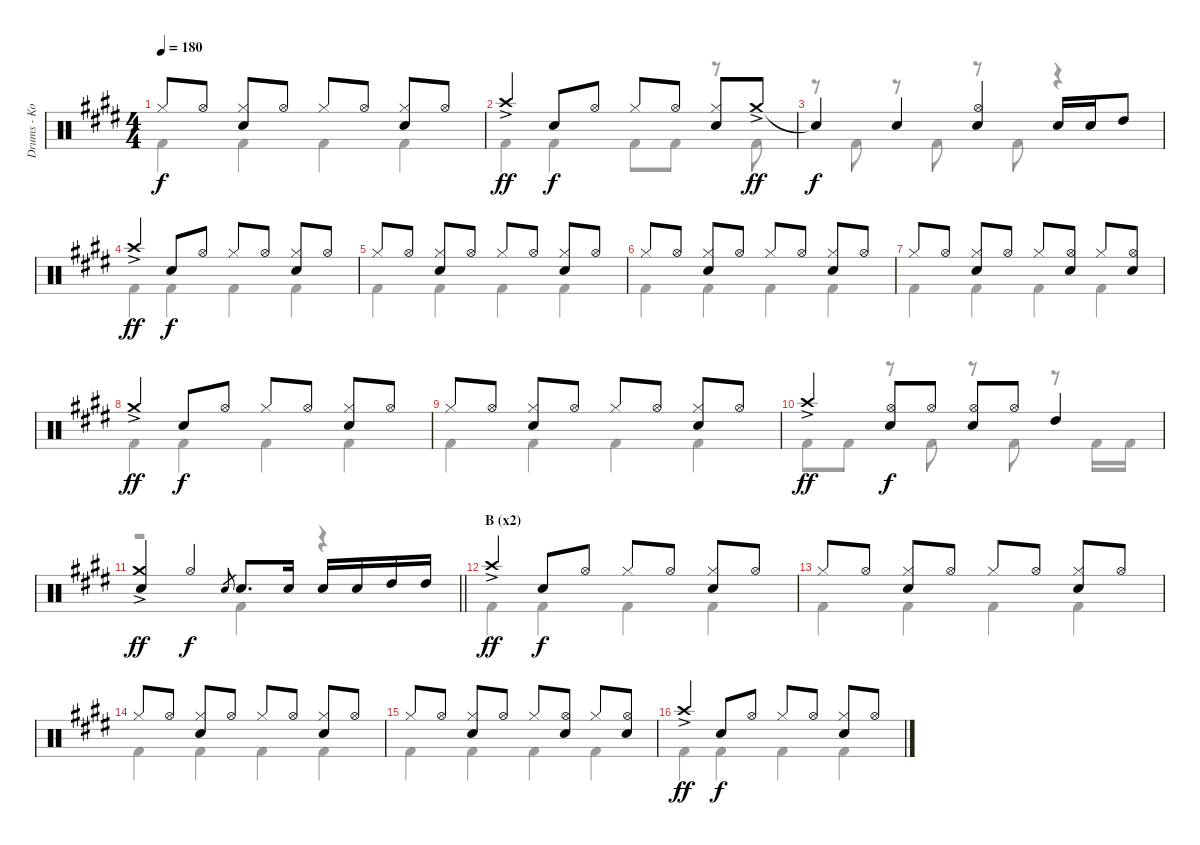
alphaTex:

\track ("Drums - Ko-Ki" "Drums - Ko") {instrument percussion}
\staff {score}
\articulation defaults
\voice
\ts (4 4)
\tempo 180
\clef neutral
\ks e "Hi-Hat (closed)".8{dy f} "Hi-Hat (open)".8
("Hi-Hat (closed)" "Snare (hit) 2").8 "Hi-Hat (open)".8 "Hi-Hat (closed)".8 "Hi-Hat (open)".8 ("Hi-Hat (closed)" "Snare (hit) 2").8 "Hi-Hat (open)".8 |
"Crash high (hit)"{ac}.4{dy ff} "Snare (hit) 2".8{dy f} "Hi-Hat (open)".8 "Hi-Hat (closed)".8 "Hi-Hat (open)".8 ("Hi-Hat (closed)" "Snare (hit) 2").8 "Crash medium (hit)"{ac}.8{dy ff} |
"Snare (hit)"{t}.4{dy f} "Snare (hit) 2".4 ("Hi-Hat (open)" "Snare (hit) 2").4 "Snare (hit) 2".16 "Snare (hit) 2".16 "High Tom (hit)".8 |
"Crash high (hit)"{ac}.4{dy ff} "Snare (hit) 2".8{dy f} "Hi-Hat (open)".8 "Hi-Hat (closed)".8 "Hi-Hat (open)".8 ("Hi-Hat (closed)" "Snare (hit) 2").8 "Hi-Hat (open)".8 |
"Hi-Hat (closed)".8 "Hi-Hat (open)".8 ("Hi-Hat (closed)" "Snare (hit) 2").8 "Hi-Hat (open)".8 "Hi-Hat (closed)".8 "Hi-Hat (open)".8 ("Hi-Hat (closed)" "Snare (hit) 2").8 "Hi-Hat (open)".8 |
"Hi-Hat (closed)".8 "Hi-Hat (open)".8 ("Hi-Hat (closed)" "Snare (hit) 2").8 "Hi-Hat (open)".8 "Hi-Hat (closed)".8 "Hi-Hat (open)".8 ("Hi-Hat (closed)" "Snare (hit) 2").8 "Hi-Hat (open)".8 |
"Hi-Hat (closed)".8 "Hi-Hat (open)".8 ("Hi-Hat (closed)" "Snare (hit) 2").8 "Hi-Hat (open)".8 "Hi-Hat (closed)".8 ("Hi-Hat (open)" "Snare (hit) 2").8 "Hi-Hat (closed)".8 ("Hi-Hat (open)" "Snare (hit) 2").8 |
"Crash medium (hit)"{ac}.4{dy ff} "Snare (hit) 2".8{dy f} "Hi-Hat (open)".8 "Hi-Hat (closed)".8 "Hi-Hat (open)".8 ("Hi-Hat (closed)" "Snare (hit) 2").8 "Hi-Hat (open)".8 |
"Hi-Hat (closed)".8 "Hi-Hat (open)".8 ("Hi-Hat (closed)" "Snare (hit) 2").8 "Hi-Hat (open)".8 "Hi-Hat (closed)".8 "Hi-Hat (open)".8 ("Hi-Hat (closed)" "Snare (hit) 2").8 "Hi-Hat (open)".8 |
"Crash high (hit)"{ac}.4{dy ff} ("Hi-Hat (open)" "Snare (hit) 2").8{dy f} "Hi-Hat (open)".8 ("Hi-Hat (open)" "Snare (hit) 2").8 "Hi-Hat (open)".8 "High Tom (hit)".4 |
\barLineRight lightlight
("Crash medium (hit)"{ac} "Snare (hit) 2").4{dy ff} "Hi-Hat (open)".4{dy f} "Snare (hit) 2".8{gr} "Snare (hit) 2".8{d} "Snare (hit) 2".16 "Snare (hit) 2".16 "Snare (hit) 2".16 "High Tom (hit)".16 "High Tom (hit)".16 |
\section ("" "B (x2)")
"Crash high (hit)"{ac}.4{dy ff} "Snare (hit) 2".8{dy f} "Hi-Hat (open)".8 "Hi-Hat (closed)".8 "Hi-Hat (open)".8 ("Hi-Hat (closed)" "Snare (hit) 2").8 "Hi-Hat (open)".8 |
"Hi-Hat (closed)".8 "Hi-Hat (open)".8 ("Hi-Hat (closed)" "Snare (hit) 2").8 "Hi-Hat (open)".8 "Hi-Hat (closed)".8 "Hi-Hat (open)".8 ("Hi-Hat (closed)" "Snare (hit) 2").8 "Hi-Hat (open)".8 |
"Hi-Hat (closed)".8 "Hi-Hat (open)".8 ("Hi-Hat (closed)" "Snare (hit) 2").8 "Hi-Hat (open)".8 "Hi-Hat (closed)".8 "Hi-Hat (open)".8 ("Hi-Hat (closed)" "Snare (hit) 2").8 "Hi-Hat (open)".8 |
"Hi-Hat (closed)".8 "Hi-Hat (open)".8 ("Hi-Hat (closed)" "Snare (hit) 2").8 "Hi-Hat (open)".8 "Hi-Hat (closed)".8 ("Hi-Hat (open)" "Snare (hit) 2").8 "Hi-Hat (closed)".8 ("Hi-Hat (open)" "Snare (hit) 2").8 |
"Crash high (hit)"{ac}.4{dy ff} "Snare (hit) 2".8{dy f} "Hi-Hat (open)".8 "Hi-Hat (closed)".8 "Hi-Hat (open)".8 ("Hi-Hat (closed)" "Snare (hit) 2").8 "Hi-Hat (open)".8
\voice
\clef neutral
\ottava regular
\simile none
\ks e "Kick (hit) 2".4{dy f} "Kick (hit) 2".4 "Kick (hit) 2".4 "Kick (hit) 2".4
|
"Kick (hit) 2".4 "Kick (hit) 2".4 "Kick (hit) 2".8 "Kick (hit) 2".8 r.8 "Kick (hit) 2".8 |
r.8 "Kick (hit) 2".8 r.8 "Kick (hit) 2".8 r.8 "Kick (hit) 2".8 r.4 |
"Kick (hit) 2".4 "Kick (hit) 2".4 "Kick (hit) 2".4 "Kick (hit) 2".4 |
"Kick (hit) 2".4 "Kick (hit) 2".4 "Kick (hit) 2".4 "Kick (hit) 2".4 |
"Kick (hit) 2".4 "Kick (hit) 2".4 "Kick (hit) 2".4 "Kick (hit) 2".4 |
"Kick (hit) 2".4 "Kick (hit) 2".4 "Kick (hit) 2".4 "Kick (hit) 2".4 |
"Kick (hit) 2".4 "Kick (hit) 2".4 "Kick (hit) 2".4 "Kick (hit) 2".4 |
"Kick (hit) 2".4 "Kick (hit) 2".4 "Kick (hit) 2".4 "Kick (hit) 2".4 |
"Kick (hit) 2".8 "Kick (hit) 2".8 r.8 "Kick (hit) 2".8 r.8 "Kick (hit) 2".8 r.8 "Kick (hit) 2".16 "Kick (hit) 2".16 |
\barLineRight lightlight
r.2 "Kick (hit) 2".4 r.4 |
"Kick (hit) 2".4 "Kick (hit) 2".4 "Kick (hit) 2".4 "Kick (hit) 2".4 |
"Kick (hit) 2".4 "Kick (hit) 2".4 "Kick (hit) 2".4 "Kick (hit) 2".4 |
"Kick (hit) 2".4 "Kick (hit) 2".4 "Kick (hit) 2".4 "Kick (hit) 2".4 |
"Kick (hit) 2".4 "Kick (hit) 2".4 "Kick (hit) 2".4 "Kick (hit) 2".4 |
"Kick (hit) 2".4 "Kick (hit) 2".4 "Kick (hit) 2".4 "Kick (hit) 2".4
